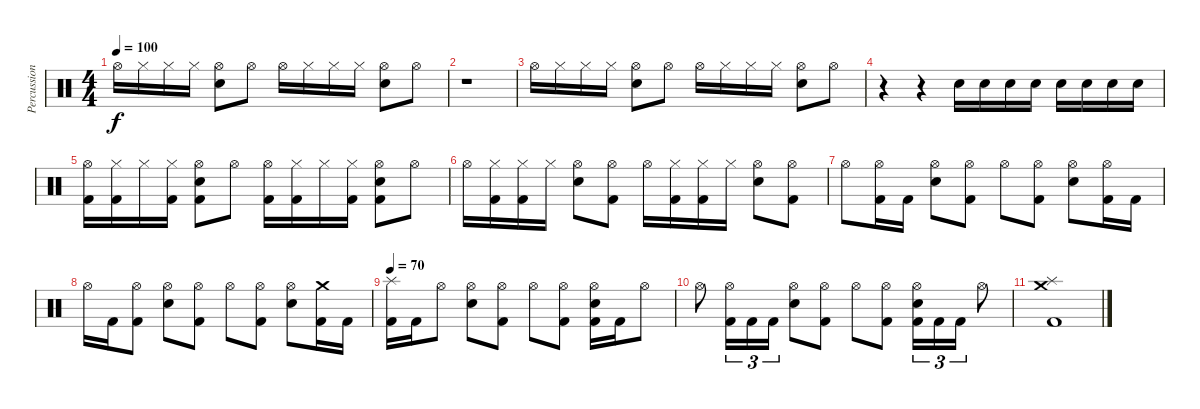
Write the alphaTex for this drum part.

\track ("Percussion" "Percussion") {instrument percussion}
\staff {score}
\articulation defaults
\ts (4 4)
\tempo 100
\clef neutral
\ks c "Hi-Hat (open)".16{dy f} "Hi-Hat (closed)".16 "Hi-Hat (closed)".16 "Hi-Hat (closed)".16
("Hi-Hat (open)" "Electric Snare (hit)").8 "Hi-Hat (open)".8 "Hi-Hat (open)".16 "Hi-Hat (closed)".16 "Hi-Hat (closed)".16 "Hi-Hat (closed)".16 ("Hi-Hat (open)" "Electric Snare (hit)").8 "Hi-Hat (open)".8 |
r.1 |
"Hi-Hat (open)".16 "Hi-Hat (closed)".16 "Hi-Hat (closed)".16 "Hi-Hat (closed)".16 ("Hi-Hat (open)" "Electric Snare (hit)").8 "Hi-Hat (open)".8 "Hi-Hat (open)".16 "Hi-Hat (closed)".16 "Hi-Hat (closed)".16 "Hi-Hat (closed)".16 ("Hi-Hat (open)" "Electric Snare (hit)").8 "Hi-Hat (open)".8 |
r.4{volume 0} r.4 "Electric Snare (hit)".16{volume 9} "Electric Snare (hit)".16 "Electric Snare (hit)".16 "Electric Snare (hit)".16 "Electric Snare (hit)".16{volume 16} "Electric Snare (hit)".16 "Electric Snare (hit)".16 "Electric Snare (hit)".16 |
("Hi-Hat (open)" "Kick (hit) 2").16{volume 13} ("Hi-Hat (closed)" "Kick (hit) 2").16 "Hi-Hat (closed)".16 ("Hi-Hat (closed)" "Kick (hit) 2").16 ("Hi-Hat (open)" "Electric Snare (hit)" "Kick (hit) 2").8 "Hi-Hat (open)".8 ("Hi-Hat (open)" "Kick (hit) 2").16 ("Hi-Hat (closed)" "Kick (hit) 2").16 "Hi-Hat (closed)".16 ("Hi-Hat (closed)" "Kick (hit) 2").16 ("Hi-Hat (open)" "Electric Snare (hit)" "Kick (hit) 2").8 "Hi-Hat (open)".8 |
"Hi-Hat (open)".16 ("Hi-Hat (closed)" "Kick (hit) 2").16 ("Hi-Hat (closed)" "Kick (hit) 2").16 "Hi-Hat (closed)".16 ("Hi-Hat (open)" "Electric Snare (hit)").8 ("Hi-Hat (open)" "Kick (hit) 2").8 "Hi-Hat (open)".16 ("Hi-Hat (closed)" "Kick (hit) 2").16 ("Hi-Hat (closed)" "Kick (hit) 2").16 "Hi-Hat (closed)".16 ("Hi-Hat (open)" "Electric Snare (hit)").8 ("Hi-Hat (open)" "Kick (hit) 2").8 |
"Hi-Hat (open)".8 ("Hi-Hat (open)" "Kick (hit) 2").16 "Kick (hit) 2".16 ("Hi-Hat (open)" "Electric Snare (hit)").8 ("Hi-Hat (open)" "Kick (hit) 2").8 "Hi-Hat (open)".8 ("Hi-Hat (open)" "Kick (hit) 2").8 ("Hi-Hat (open)" "Electric Snare (hit)").8 ("Hi-Hat (open)" "Kick (hit) 2").16 "Kick (hit) 2".16 |
"Hi-Hat (open)".16 "Kick (hit) 2".16 ("Hi-Hat (open)" "Kick (hit) 2").8 ("Hi-Hat (open)" "Electric Snare (hit)").8 ("Hi-Hat (open)" "Kick (hit) 2").8 "Hi-Hat (open)".8 ("Hi-Hat (open)" "Kick (hit) 2").8 ("Hi-Hat (open)" "Electric Snare (hit)").8 ("Crash medium (hit)" "Kick (hit) 2").16 "Kick (hit) 2".16 |
\tempo 70
("Splash (hit)" "Kick (hit) 2").16 "Kick (hit) 2".16 "Hi-Hat (open)".8 ("Hi-Hat (open)" "Electric Snare (hit)").8 ("Hi-Hat (open)" "Kick (hit) 2").8 "Hi-Hat (open)".8 ("Hi-Hat (open)" "Kick (hit) 2").8 ("Hi-Hat (open)" "Electric Snare (hit)" "Kick (hit) 2").16 "Kick (hit) 2".16 "Hi-Hat (open)".8 |
"Hi-Hat (open)".8 ("Hi-Hat (open)" "Kick (hit) 2").16{tu (3 2)} "Kick (hit) 2".16{tu (3 2)} "Kick (hit) 2".16{tu (3 2)} ("Hi-Hat (open)" "Electric Snare (hit)").8 ("Hi-Hat (open)" "Kick (hit) 2").8 "Hi-Hat (open)".8 ("Hi-Hat (open)" "Kick (hit) 2").8 ("Hi-Hat (open)" "Electric Snare (hit)" "Kick (hit) 2").16{tu (3 2)} "Kick (hit) 2".16{tu (3 2)} "Kick (hit) 2".16{tu (3 2)} "Hi-Hat (open)".8 |
("Splash (hit)" "Crash medium (hit)" "Kick (hit) 2").1
